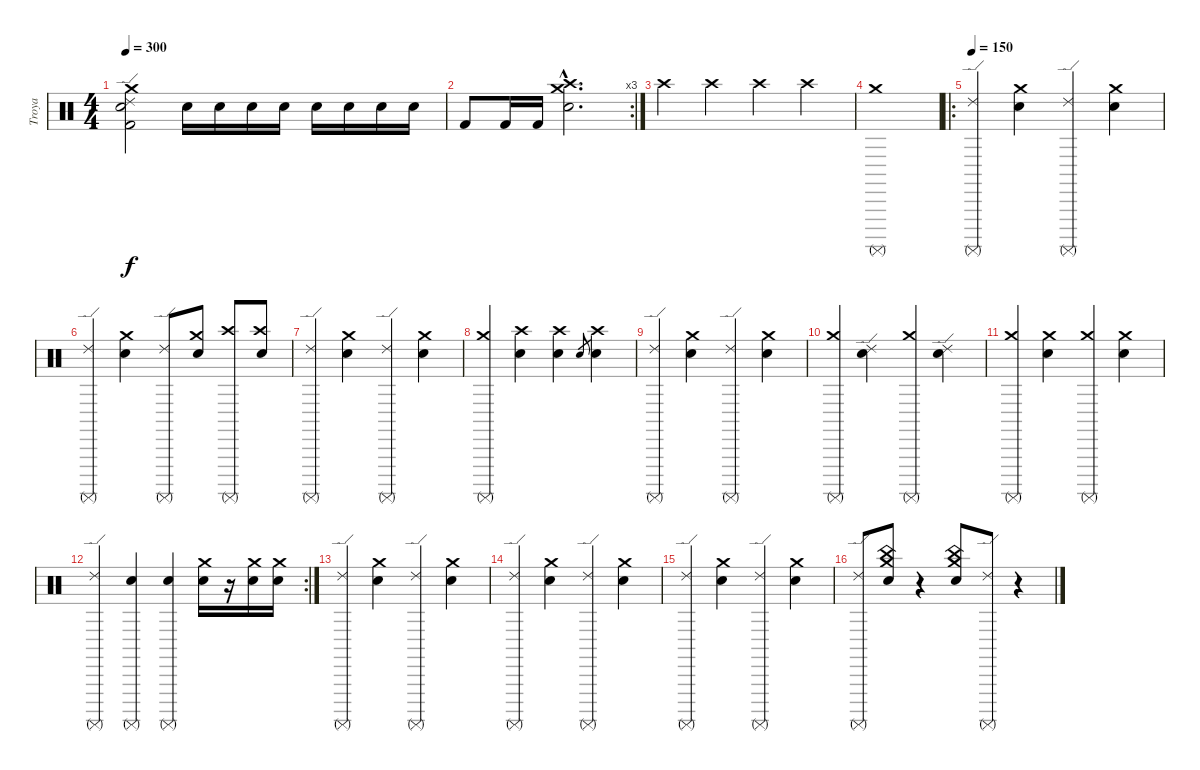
\track ("Troya" "Troya") {instrument percussion}
\staff {score}
\articulation defaults
\ts (4 4)
\tempo 300
\clef neutral
\ks c
("Ride (edge) 2" "Crash medium (hit)" "Kick (hit) 2" "Snare (hit) 2").2{dy f} "Electric Snare (hit)".16 "Electric Snare (hit)".16 "Electric Snare (hit)".16 "Electric Snare (hit)".16 "Electric Snare (hit)".16 "Electric Snare (hit)".16 "Electric Snare (hit)".16 "Electric Snare (hit)".16 |
\rc 3 "Kick (hit) 2".8 "Kick (hit) 2".16 "Kick (hit) 2".16
("Snare (hit) 2"{hac} "Crash high (hit)"{hac} "Crash medium (hit)"{hac}).2{d} |
"Crash high (hit)".4 "Crash high (hit)".4 "Crash high (hit)".4 "Crash high (hit)".4 |
("Surdo (mute)" "Crash medium (hit)").1 |
\ro
\tempo 150
("Ride (edge) 2" "Surdo (mute)").4 ("Crash medium (hit)" "Electric Snare (hit)").4 ("Ride (edge) 2" "Surdo (mute)").4 ("Crash medium (hit)" "Electric Snare (hit)").4 |
("Ride (edge) 2" "Surdo (mute)").4 ("Crash medium (hit)" "Electric Snare (hit)").4 ("Ride (edge) 2" "Surdo (mute)").8 ("Crash medium (hit)" "Electric Snare (hit)").8 ("Crash high (hit)" "Surdo (mute)").8 ("Crash high (hit)" "Electric Snare (hit)").8 |
("Ride (edge) 2" "Surdo (mute)").4 ("Crash medium (hit)" "Electric Snare (hit)").4 ("Ride (edge) 2" "Surdo (mute)").4 ("Crash medium (hit)" "Electric Snare (hit)").4 |
("Crash medium (hit)" "Surdo (mute)").4 ("Crash high (hit)" "Electric Snare (hit)").4 ("Crash high (hit)" "Electric Snare (hit)").4 "Electric Snare (hit)".8{gr} ("Crash high (hit)" "Electric Snare (hit)").4 |
("Ride (edge) 2" "Surdo (mute)").4 ("Crash medium (hit)" "Electric Snare (hit)").4 ("Ride (edge) 2" "Surdo (mute)").4 ("Crash medium (hit)" "Electric Snare (hit)").4 |
("Crash medium (hit)" "Surdo (mute)").4 ("Ride (edge) 2" "Electric Snare (hit)").4 ("Crash medium (hit)" "Surdo (mute)").4 ("Ride (edge) 2" "Electric Snare (hit)").4 |
("Crash medium (hit)" "Surdo (mute)").4 ("Crash medium (hit)" "Electric Snare (hit)").4 ("Crash medium (hit)" "Surdo (mute)").4 ("Crash medium (hit)" "Electric Snare (hit)").4 |
\rc 2
("Ride (edge) 2" "Surdo (mute)").4 ("Surdo (mute)" "Electric Snare (hit)").4 ("Surdo (mute)" "Electric Snare (hit)").4 ("Crash medium (hit)" "Snare (hit) 2").16 r.16 ("Crash medium (hit)" "Snare (hit) 2").16 ("Crash medium (hit)" "Snare (hit) 2").16 |
("Ride (edge) 2" "Surdo (mute)").4 ("Crash medium (hit)" "Electric Snare (hit)").4 ("Ride (edge) 2" "Surdo (mute)").4 ("Crash medium (hit)" "Electric Snare (hit)").4 |
("Ride (edge) 2" "Surdo (mute)").4 ("Crash medium (hit)" "Electric Snare (hit)").4 ("Ride (edge) 2" "Surdo (mute)").4 ("Crash medium (hit)" "Electric Snare (hit)").4 |
("Ride (edge) 2" "Surdo (mute)").4 ("Crash medium (hit)" "Electric Snare (hit)").4 ("Ride (edge) 2" "Surdo (mute)").4 ("Crash medium (hit)" "Electric Snare (hit)").4 |
("Ride (edge) 2" "Surdo (mute)").8 ("China (hit)" "Crash medium (hit)" "Electric Snare (hit)").8 r.4 ("China (hit)" "Crash medium (hit)" "Electric Snare (hit)").8 ("Ride (edge) 2" "Surdo (mute)").8 r.4
